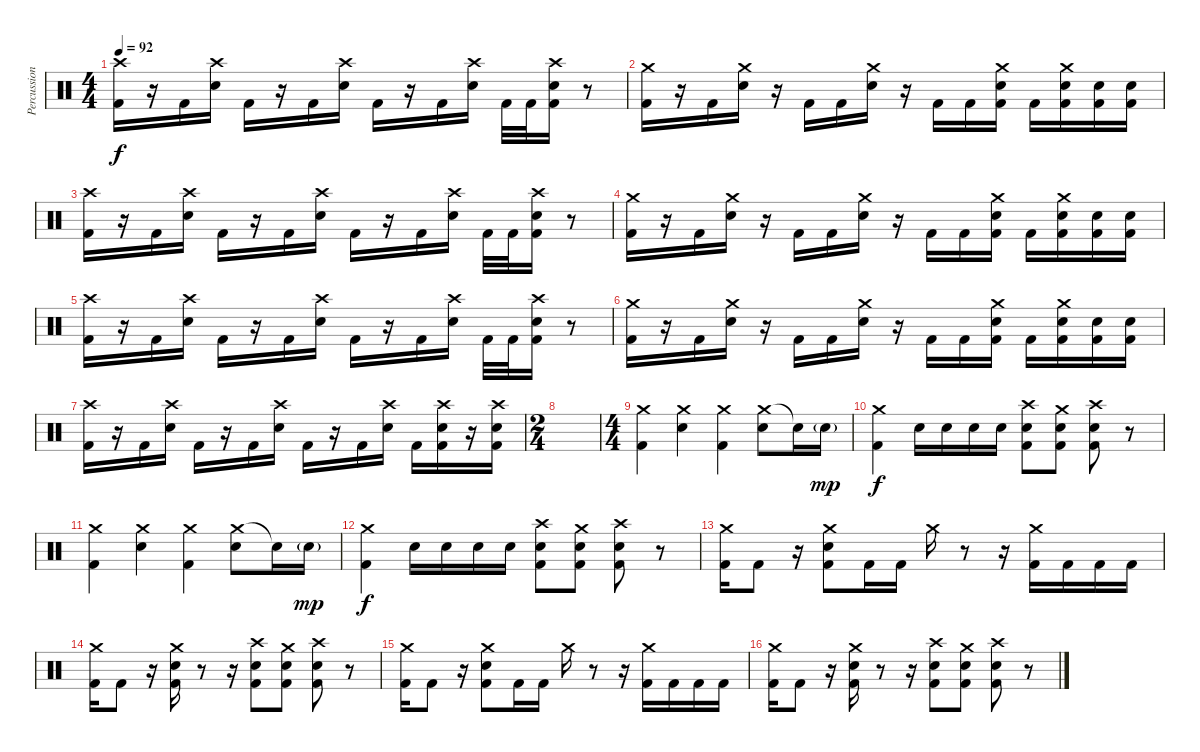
\track ("Percussion" "Percussion") {instrument percussion}
\staff {score}
\articulation defaults
\ts (4 4)
\tempo 92
\clef neutral
\ks c
("Crash high (hit)" "Kick (hit) 2").16{dy f} r.16 "Kick (hit) 2".16 ("Crash high (hit)" "Electric Snare (hit)").16 "Kick (hit) 2".16 r.16 "Kick (hit) 2".16 ("Crash high (hit)" "Electric Snare (hit)").16 "Kick (hit) 2".16 r.16 "Kick (hit) 2".16 ("Crash high (hit)" "Electric Snare (hit)").16 "Kick (hit) 2".32 "Kick (hit) 2".32 ("Crash high (hit)" "Electric Snare (hit)" "Kick (hit) 2").16 r.8 |
("Crash medium (hit)" "Kick (hit) 2").16 r.16 "Kick (hit) 2".16 ("Crash medium (hit)" "Electric Snare (hit)").16 r.16 "Kick (hit) 2".16 "Kick (hit) 2".16 ("Crash medium (hit)" "Electric Snare (hit)").16 r.16 "Kick (hit) 2".16 "Kick (hit) 2".16 ("Crash medium (hit)" "Electric Snare (hit)" "Kick (hit) 2").16 "Kick (hit) 2".16 ("Crash medium (hit)" "Electric Snare (hit)" "Kick (hit) 2").16 ("Electric Snare (hit)" "Kick (hit) 2").16 ("Electric Snare (hit)" "Kick (hit) 2").16 |
("Crash high (hit)" "Kick (hit) 2").16 r.16 "Kick (hit) 2".16 ("Crash high (hit)" "Electric Snare (hit)").16 "Kick (hit) 2".16 r.16 "Kick (hit) 2".16 ("Crash high (hit)" "Electric Snare (hit)").16 "Kick (hit) 2".16 r.16 "Kick (hit) 2".16 ("Crash high (hit)" "Electric Snare (hit)").16 "Kick (hit) 2".32 "Kick (hit) 2".32 ("Crash high (hit)" "Electric Snare (hit)" "Kick (hit) 2").16 r.8 |
("Crash medium (hit)" "Kick (hit) 2").16 r.16 "Kick (hit) 2".16 ("Crash medium (hit)" "Electric Snare (hit)").16 r.16 "Kick (hit) 2".16 "Kick (hit) 2".16 ("Crash medium (hit)" "Electric Snare (hit)").16 r.16 "Kick (hit) 2".16 "Kick (hit) 2".16 ("Crash medium (hit)" "Electric Snare (hit)" "Kick (hit) 2").16 "Kick (hit) 2".16 ("Crash medium (hit)" "Electric Snare (hit)" "Kick (hit) 2").16 ("Electric Snare (hit)" "Kick (hit) 2").16 ("Electric Snare (hit)" "Kick (hit) 2").16 |
("Crash high (hit)" "Kick (hit) 2").16 r.16 "Kick (hit) 2".16 ("Crash high (hit)" "Electric Snare (hit)").16 "Kick (hit) 2".16 r.16 "Kick (hit) 2".16 ("Crash high (hit)" "Electric Snare (hit)").16 "Kick (hit) 2".16 r.16 "Kick (hit) 2".16 ("Crash high (hit)" "Electric Snare (hit)").16 "Kick (hit) 2".32 "Kick (hit) 2".32 ("Crash high (hit)" "Electric Snare (hit)" "Kick (hit) 2").16 r.8 |
("Crash medium (hit)" "Kick (hit) 2").16 r.16 "Kick (hit) 2".16 ("Crash medium (hit)" "Electric Snare (hit)").16 r.16 "Kick (hit) 2".16 "Kick (hit) 2".16 ("Crash medium (hit)" "Electric Snare (hit)").16 r.16 "Kick (hit) 2".16 "Kick (hit) 2".16 ("Crash medium (hit)" "Electric Snare (hit)" "Kick (hit) 2").16 "Kick (hit) 2".16 ("Crash medium (hit)" "Electric Snare (hit)" "Kick (hit) 2").16 ("Electric Snare (hit)" "Kick (hit) 2").16 ("Electric Snare (hit)" "Kick (hit) 2").16 |
("Crash high (hit)" "Kick (hit) 2").16 r.16 "Kick (hit) 2".16 ("Crash high (hit)" "Electric Snare (hit)").16 "Kick (hit) 2".16 r.16 "Kick (hit) 2".16 ("Crash high (hit)" "Electric Snare (hit)").16 "Kick (hit) 2".16 r.16 "Kick (hit) 2".16 ("Crash high (hit)" "Electric Snare (hit)").16 "Kick (hit) 2".16 ("Crash high (hit)" "Electric Snare (hit)" "Kick (hit) 2").16 r.16 ("Crash high (hit)" "Electric Snare (hit)" "Kick (hit) 2").16 |
\ts (2 4)
|
\ts (4 4)
("Crash medium (hit)" "Kick (hit) 2").4 ("Crash medium (hit)" "Electric Snare (hit)").4 ("Crash medium (hit)" "Kick (hit) 2").4 ("Crash medium (hit)" "Electric Snare (hit)").8 "Snare (hit)"{t}.16 "Electric Snare (hit)"{g}.16{dy mp} |
("Crash medium (hit)" "Kick (hit) 2").4{dy f} "Electric Snare (hit)".16 "Electric Snare (hit)".16 "Electric Snare (hit)".16 "Electric Snare (hit)".16 ("Crash high (hit)" "Electric Snare (hit)" "Kick (hit) 2").8 ("Crash medium (hit)" "Electric Snare (hit)" "Kick (hit) 2").8 ("Crash high (hit)" "Electric Snare (hit)" "Kick (hit) 2").8 r.8 |
("Crash medium (hit)" "Kick (hit) 2").4 ("Crash medium (hit)" "Electric Snare (hit)").4 ("Crash medium (hit)" "Kick (hit) 2").4 ("Crash medium (hit)" "Electric Snare (hit)").8 "Snare (hit)"{t}.16 "Electric Snare (hit)"{g}.16{dy mp} |
("Crash medium (hit)" "Kick (hit) 2").4{dy f} "Electric Snare (hit)".16 "Electric Snare (hit)".16 "Electric Snare (hit)".16 "Electric Snare (hit)".16 ("Crash high (hit)" "Electric Snare (hit)" "Kick (hit) 2").8 ("Crash medium (hit)" "Electric Snare (hit)" "Kick (hit) 2").8 ("Crash high (hit)" "Electric Snare (hit)" "Kick (hit) 2").8 r.8 |
("Crash medium (hit)" "Kick (hit) 2").16 "Kick (hit) 2".8 r.16 ("Crash medium (hit)" "Electric Snare (hit)" "Kick (hit) 2").8 "Kick (hit) 2".16 "Kick (hit) 2".16 "Crash medium (hit)".16 r.8 r.16 ("Crash medium (hit)" "Kick (hit) 2").16 "Kick (hit) 2".16 "Kick (hit) 2".16 "Kick (hit) 2".16 |
("Crash medium (hit)" "Kick (hit) 2").16 "Kick (hit) 2".8 r.16 ("Crash medium (hit)" "Electric Snare (hit)" "Kick (hit) 2").16 r.8 r.16 ("Crash high (hit)" "Electric Snare (hit)" "Kick (hit) 2").8 ("Crash medium (hit)" "Electric Snare (hit)" "Kick (hit) 2").8 ("Crash high (hit)" "Electric Snare (hit)" "Kick (hit) 2").8 r.8 |
("Crash medium (hit)" "Kick (hit) 2").16 "Kick (hit) 2".8 r.16 ("Crash medium (hit)" "Electric Snare (hit)" "Kick (hit) 2").8 "Kick (hit) 2".16 "Kick (hit) 2".16 "Crash medium (hit)".16 r.8 r.16 ("Crash medium (hit)" "Kick (hit) 2").16 "Kick (hit) 2".16 "Kick (hit) 2".16 "Kick (hit) 2".16 |
("Crash medium (hit)" "Kick (hit) 2").16 "Kick (hit) 2".8 r.16 ("Crash medium (hit)" "Electric Snare (hit)" "Kick (hit) 2").16 r.8 r.16 ("Crash high (hit)" "Electric Snare (hit)" "Kick (hit) 2").8 ("Crash medium (hit)" "Electric Snare (hit)" "Kick (hit) 2").8 ("Crash high (hit)" "Electric Snare (hit)" "Kick (hit) 2").8 r.8
